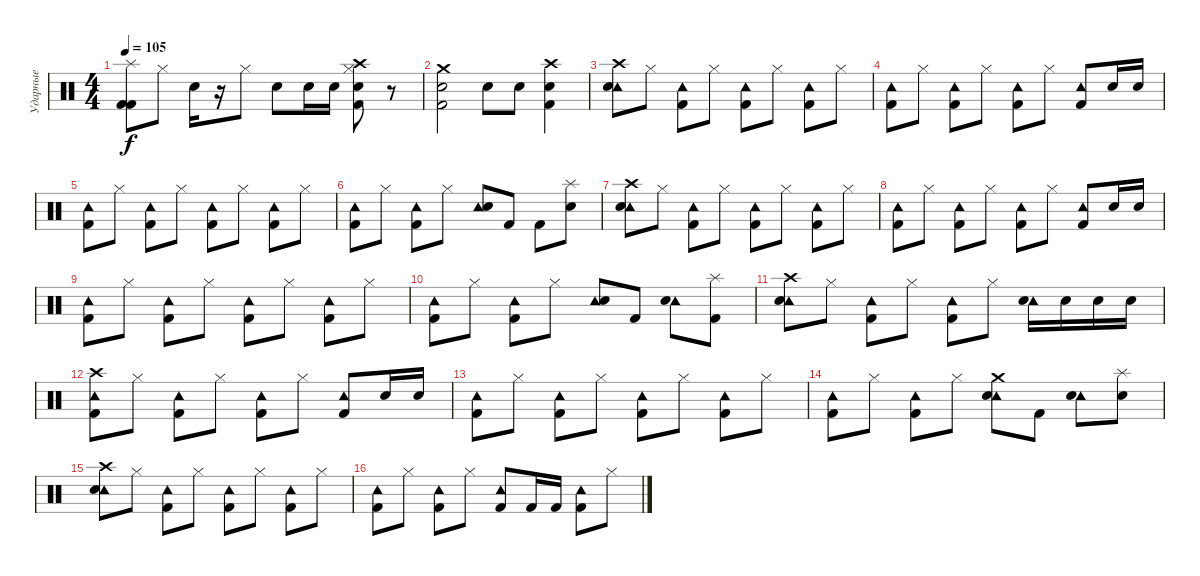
\track ("Ударные" "Ударные") {instrument percussion}
\staff {score}
\articulation defaults
\ts (4 4)
\tempo 105
\clef neutral
\ks c
("Splash (hit)" "Kick (hit) 2" "Kick (hit) 2").8{dy f} "Hi-Hat (closed)".8 "Snare (hit) 2".16 r.16 "Hi-Hat (closed)".8 "Snare (hit) 2".8 "Snare (hit) 2".16 "Snare (hit) 2".16 ("Crash high (hit)" "Snare (hit) 2" "Hi-Hat (closed)" "Kick (hit) 2").8 r.8 |
("Crash medium (hit)" "Snare (hit) 2" "Kick (hit) 2").2 "Electric Snare (hit)".8 "Electric Snare (hit)".8 ("Crash high (hit)" "Snare (hit) 2" "Kick (hit) 2").4 |
("Tambourine (hit)" "Crash high (hit)" "Snare (hit) 2").8 "Hi-Hat (closed)".8 ("Tambourine (hit)" "Kick (hit) 2").8 "Hi-Hat (closed)".8 ("Tambourine (hit)" "Kick (hit) 2").8 "Hi-Hat (closed)".8 ("Tambourine (hit)" "Kick (hit) 2").8 "Hi-Hat (closed)".8 |
("Tambourine (hit)" "Kick (hit) 2").8 "Hi-Hat (closed)".8 ("Tambourine (hit)" "Kick (hit) 2").8 "Hi-Hat (closed)".8 ("Tambourine (hit)" "Kick (hit) 2").8 "Hi-Hat (closed)".8 ("Tambourine (hit)" "Kick (hit) 2").8 "Electric Snare (hit)".16 "Electric Snare (hit)".16 |
("Tambourine (hit)" "Kick (hit) 2").8 "Hi-Hat (closed)".8 ("Tambourine (hit)" "Kick (hit) 2").8 "Hi-Hat (closed)".8 ("Tambourine (hit)" "Kick (hit) 2").8 "Hi-Hat (closed)".8 ("Tambourine (hit)" "Kick (hit) 2").8 "Hi-Hat (closed)".8 |
("Tambourine (hit)" "Kick (hit) 2").8 "Hi-Hat (closed)".8 ("Tambourine (hit)" "Kick (hit) 2").8 "Hi-Hat (closed)".8 ("Tambourine (hit)" "Electric Snare (hit)").8 "Kick (hit) 2".8 "Kick (hit) 2".8 ("Splash (hit)" "Electric Snare (hit)").8 |
("Tambourine (hit)" "Crash high (hit)" "Snare (hit) 2").8 "Hi-Hat (closed)".8 ("Tambourine (hit)" "Kick (hit) 2").8 "Hi-Hat (closed)".8 ("Tambourine (hit)" "Kick (hit) 2").8 "Hi-Hat (closed)".8 ("Tambourine (hit)" "Kick (hit) 2").8 "Hi-Hat (closed)".8 |
("Tambourine (hit)" "Kick (hit) 2").8 "Hi-Hat (closed)".8 ("Tambourine (hit)" "Kick (hit) 2").8 "Hi-Hat (closed)".8 ("Tambourine (hit)" "Kick (hit) 2").8 "Hi-Hat (closed)".8 ("Tambourine (hit)" "Kick (hit) 2").8 "Electric Snare (hit)".16 "Electric Snare (hit)".16 |
("Tambourine (hit)" "Kick (hit) 2").8 "Hi-Hat (closed)".8 ("Tambourine (hit)" "Kick (hit) 2").8 "Hi-Hat (closed)".8 ("Tambourine (hit)" "Kick (hit) 2").8 "Hi-Hat (closed)".8 ("Tambourine (hit)" "Kick (hit) 2").8 "Hi-Hat (closed)".8 |
("Tambourine (hit)" "Kick (hit) 2").8 "Hi-Hat (closed)".8 ("Tambourine (hit)" "Kick (hit) 2").8 "Hi-Hat (closed)".8 ("Tambourine (hit)" "Electric Snare (hit)").8 "Kick (hit) 2".8 ("Tambourine (hit)" "Electric Snare (hit)").8 ("Splash (hit)" "Kick (hit) 2").8 |
("Tambourine (hit)" "Crash high (hit)" "Snare (hit) 2").8 "Hi-Hat (closed)".8 ("Tambourine (hit)" "Kick (hit) 2").8 "Hi-Hat (closed)".8 ("Tambourine (hit)" "Kick (hit) 2").8 "Hi-Hat (closed)".8 ("Tambourine (hit)" "Electric Snare (hit)").16 "Electric Snare (hit)".16 "Electric Snare (hit)".16 "Electric Snare (hit)".16 |
("Tambourine (hit)" "Crash high (hit)" "Kick (hit) 2").8 "Hi-Hat (closed)".8 ("Tambourine (hit)" "Kick (hit) 2").8 "Hi-Hat (closed)".8 ("Tambourine (hit)" "Kick (hit) 2").8 "Hi-Hat (closed)".8 ("Tambourine (hit)" "Kick (hit) 2").8 "Electric Snare (hit)".16 "Electric Snare (hit)".16 |
("Tambourine (hit)" "Kick (hit) 2").8 "Hi-Hat (closed)".8 ("Tambourine (hit)" "Kick (hit) 2").8 "Hi-Hat (closed)".8 ("Tambourine (hit)" "Kick (hit) 2").8 "Hi-Hat (closed)".8 ("Tambourine (hit)" "Kick (hit) 2").8 "Hi-Hat (closed)".8 |
("Tambourine (hit)" "Kick (hit) 2").8 "Hi-Hat (closed)".8 ("Tambourine (hit)" "Kick (hit) 2").8 "Hi-Hat (closed)".8 ("Tambourine (hit)" "Crash medium (hit)" "Electric Snare (hit)").8 "Kick (hit) 2".8 ("Tambourine (hit)" "Electric Snare (hit)").8 ("Splash (hit)" "Electric Snare (hit)").8 |
("Tambourine (hit)" "Crash high (hit)" "Snare (hit) 2").8 "Hi-Hat (closed)".8 ("Tambourine (hit)" "Kick (hit) 2").8 "Hi-Hat (closed)".8 ("Tambourine (hit)" "Kick (hit) 2").8 "Hi-Hat (closed)".8 ("Tambourine (hit)" "Kick (hit) 2").8 "Hi-Hat (closed)".8 |
("Tambourine (hit)" "Kick (hit) 2").8 "Hi-Hat (closed)".8 ("Tambourine (hit)" "Kick (hit) 2").8 "Hi-Hat (closed)".8 ("Tambourine (hit)" "Kick (hit) 2").8 "Kick (hit) 2".16 "Kick (hit) 2".16 ("Tambourine (hit)" "Kick (hit) 2").8 "Hi-Hat (closed)".8
